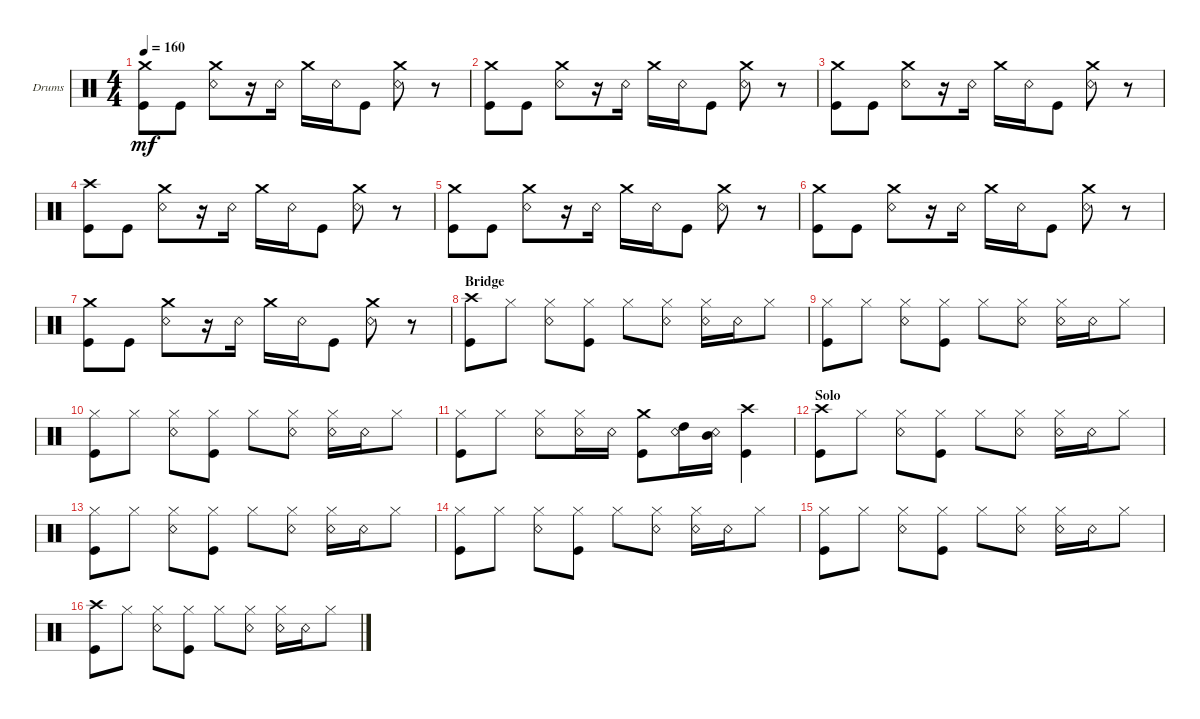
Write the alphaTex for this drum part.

\defaultSystemsLayout 4
\bracketExtendMode groupsimilarinstruments
\firstSystemTrackNameOrientation horizontal
\otherSystemsTrackNameOrientation horizontal
\track ("Drumkit" "Drums") {instrument percussion}
\staff {score}
\articulation defaults
\ts (4 4)
\tempo 160
\clef neutral
\ks c
("Kick (hit)" "Crash medium (hit)").8{dy mf} "Kick (hit)".8 ("Snare (rim shot)" "Crash medium (hit)").8 r.16 "Snare (rim shot)".16 "Crash medium (hit)".16 "Snare (rim shot)".16 "Kick (hit)".8 ("Snare (rim shot)" "Crash medium (hit)").8 r.8 |
("Kick (hit)" "Crash medium (hit)").8 "Kick (hit)".8 ("Snare (rim shot)" "Crash medium (hit)").8 r.16 "Snare (rim shot)".16 "Crash medium (hit)".16 "Snare (rim shot)".16 "Kick (hit)".8 ("Snare (rim shot)" "Crash medium (hit)").8 r.8 |
("Kick (hit)" "Crash medium (hit)").8 "Kick (hit)".8 ("Snare (rim shot)" "Crash medium (hit)").8 r.16 "Snare (rim shot)".16 "Crash medium (hit)".16 "Snare (rim shot)".16 "Kick (hit)".8 ("Snare (rim shot)" "Crash medium (hit)").8 r.8 |
("Kick (hit)" "Crash high (hit)").8 "Kick (hit)".8 ("Snare (rim shot)" "Crash medium (hit)").8 r.16 "Snare (rim shot)".16 "Crash medium (hit)".16 "Snare (rim shot)".16 "Kick (hit)".8 ("Snare (rim shot)" "Crash medium (hit)").8 r.8 |
("Kick (hit)" "Crash medium (hit)").8 "Kick (hit)".8 ("Snare (rim shot)" "Crash medium (hit)").8 r.16 "Snare (rim shot)".16 "Crash medium (hit)".16 "Snare (rim shot)".16 "Kick (hit)".8 ("Snare (rim shot)" "Crash medium (hit)").8 r.8 |
("Kick (hit)" "Crash medium (hit)").8 "Kick (hit)".8 ("Snare (rim shot)" "Crash medium (hit)").8 r.16 "Snare (rim shot)".16 "Crash medium (hit)".16 "Snare (rim shot)".16 "Kick (hit)".8 ("Snare (rim shot)" "Crash medium (hit)").8 r.8 |
("Kick (hit)" "Crash medium (hit)").8 "Kick (hit)".8 ("Snare (rim shot)" "Crash medium (hit)").8 r.16 "Snare (rim shot)".16 "Crash medium (hit)".16 "Snare (rim shot)".16 "Kick (hit)".8 ("Snare (rim shot)" "Crash medium (hit)").8 r.8 |
\section ("" "Bridge")
("Kick (hit)" "Crash high (hit)").8 "Hi-Hat (closed)".8 ("Snare (rim shot)" "Hi-Hat (closed)").8 ("Hi-Hat (closed)" "Kick (hit)").8 "Hi-Hat (closed)".8 ("Snare (rim shot)" "Hi-Hat (closed)").8 ("Snare (rim shot)" "Hi-Hat (closed)").16 "Snare (rim shot)".16 "Hi-Hat (closed)".8 |
("Kick (hit)" "Hi-Hat (closed)").8 "Hi-Hat (closed)".8 ("Snare (rim shot)" "Hi-Hat (closed)").8 ("Hi-Hat (closed)" "Kick (hit)").8 "Hi-Hat (closed)".8 ("Snare (rim shot)" "Hi-Hat (closed)").8 ("Snare (rim shot)" "Hi-Hat (closed)").16 "Snare (rim shot)".16 "Hi-Hat (closed)".8 |
("Kick (hit)" "Hi-Hat (closed)").8 "Hi-Hat (closed)".8 ("Snare (rim shot)" "Hi-Hat (closed)").8 ("Hi-Hat (closed)" "Kick (hit)").8 "Hi-Hat (closed)".8 ("Snare (rim shot)" "Hi-Hat (closed)").8 ("Snare (rim shot)" "Hi-Hat (closed)").16 "Snare (rim shot)".16 "Hi-Hat (closed)".8 |
("Kick (hit)" "Hi-Hat (closed)").8 "Hi-Hat (closed)".8 ("Snare (rim shot)" "Hi-Hat (closed)").8 ("Snare (rim shot)" "Hi-Hat (closed)").16 "Snare (rim shot)".16 ("Kick (hit)" "Crash medium (hit)").8 ("Snare (rim shot)" "High Tom (hit)").16 ("Snare (rim shot)" "Mid Tom (hit)").16 ("Kick (hit)" "Crash high (hit)").4 |
\section ("" "Solo")
("Kick (hit)" "Crash high (hit)").8 "Hi-Hat (closed)".8 ("Snare (rim shot)" "Hi-Hat (closed)").8 ("Hi-Hat (closed)" "Kick (hit)").8 "Hi-Hat (closed)".8 ("Snare (rim shot)" "Hi-Hat (closed)").8 ("Snare (rim shot)" "Hi-Hat (closed)").16 "Snare (rim shot)".16 "Hi-Hat (closed)".8 |
("Kick (hit)" "Hi-Hat (closed)").8 "Hi-Hat (closed)".8 ("Snare (rim shot)" "Hi-Hat (closed)").8 ("Hi-Hat (closed)" "Kick (hit)").8 "Hi-Hat (closed)".8 ("Snare (rim shot)" "Hi-Hat (closed)").8 ("Snare (rim shot)" "Hi-Hat (closed)").16 "Snare (rim shot)".16 "Hi-Hat (closed)".8 |
("Kick (hit)" "Hi-Hat (closed)").8 "Hi-Hat (closed)".8 ("Snare (rim shot)" "Hi-Hat (closed)").8 ("Hi-Hat (closed)" "Kick (hit)").8 "Hi-Hat (closed)".8 ("Snare (rim shot)" "Hi-Hat (closed)").8 ("Snare (rim shot)" "Hi-Hat (closed)").16 "Snare (rim shot)".16 "Hi-Hat (closed)".8 |
("Kick (hit)" "Hi-Hat (closed)").8 "Hi-Hat (closed)".8 ("Snare (rim shot)" "Hi-Hat (closed)").8 ("Hi-Hat (closed)" "Kick (hit)").8 "Hi-Hat (closed)".8 ("Snare (rim shot)" "Hi-Hat (closed)").8 ("Snare (rim shot)" "Hi-Hat (closed)").16 "Snare (rim shot)".16 "Hi-Hat (closed)".8 |
("Kick (hit)" "Crash high (hit)").8 "Hi-Hat (closed)".8 ("Snare (rim shot)" "Hi-Hat (closed)").8 ("Hi-Hat (closed)" "Kick (hit)").8 "Hi-Hat (closed)".8 ("Snare (rim shot)" "Hi-Hat (closed)").8 ("Snare (rim shot)" "Hi-Hat (closed)").16 "Snare (rim shot)".16 "Hi-Hat (closed)".8
